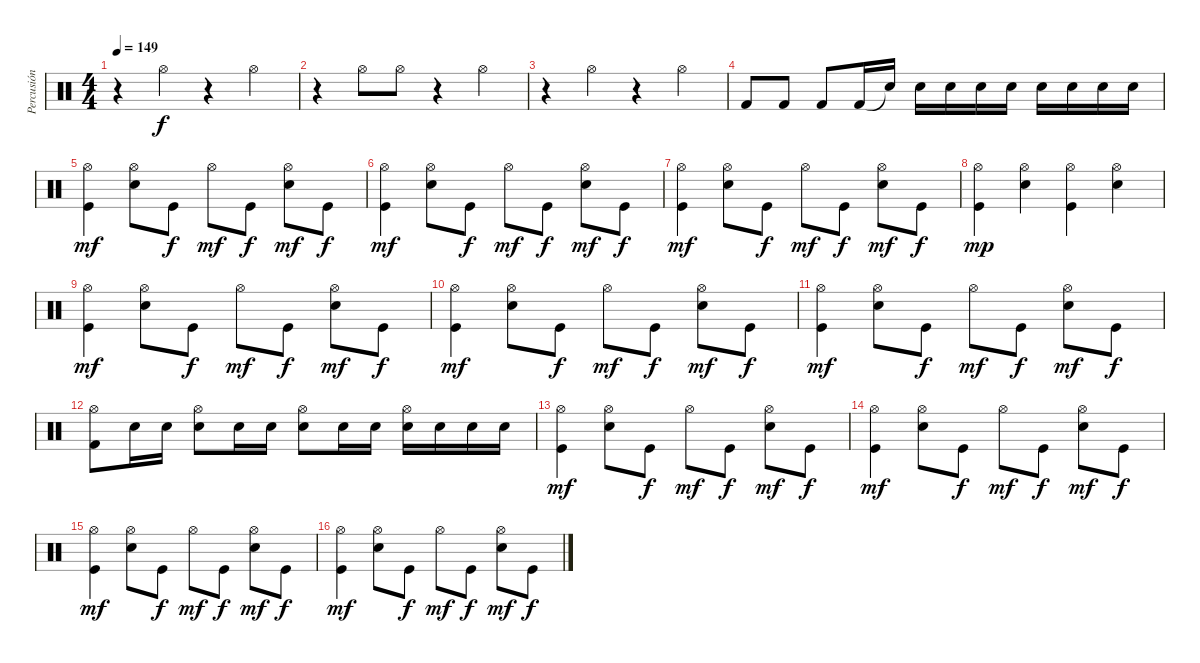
\track ("Percusión" "Percusión") {instrument percussion}
\staff {score}
\articulation defaults
\ts (4 4)
\tempo 149
\clef neutral
\ks c
r.4{dy f} "Hi-Hat (open)".4 r.4 "Hi-Hat (open)".4 |
r.4 "Hi-Hat (open)".8 "Hi-Hat (open)".8 r.4 "Hi-Hat (open)".4 |
r.4 "Hi-Hat (open)".4 r.4 "Hi-Hat (open)".4 |
"Kick (hit) 2".8 "Kick (hit) 2".8 "Kick (hit) 2".8 "Kick (hit) 2".16 "Electric Snare (hit)"{t}.16 "Electric Snare (hit)".16 "Electric Snare (hit)".16 "Electric Snare (hit)".16 "Electric Snare (hit)".16 "Electric Snare (hit)".16 "Electric Snare (hit)".16 "Electric Snare (hit)".16 "Electric Snare (hit)".16 |
("Hi-Hat (open)" "Kick (hit)").4{dy mf} ("Hi-Hat (open)" "Electric Snare (hit)").8 "Kick (hit)".8{dy f} "Hi-Hat (open)".8{dy mf} "Kick (hit)".8{dy f} ("Hi-Hat (open)" "Electric Snare (hit)").8{dy mf} "Kick (hit)".8{dy f} |
("Hi-Hat (open)" "Kick (hit)").4{dy mf} ("Hi-Hat (open)" "Electric Snare (hit)").8 "Kick (hit)".8{dy f} "Hi-Hat (open)".8{dy mf} "Kick (hit)".8{dy f} ("Hi-Hat (open)" "Electric Snare (hit)").8{dy mf} "Kick (hit)".8{dy f} |
("Hi-Hat (open)" "Kick (hit)").4{dy mf} ("Hi-Hat (open)" "Electric Snare (hit)").8 "Kick (hit)".8{dy f} "Hi-Hat (open)".8{dy mf} "Kick (hit)".8{dy f} ("Hi-Hat (open)" "Electric Snare (hit)").8{dy mf} "Kick (hit)".8{dy f} |
("Kick (hit)" "Hi-Hat (open)").4{dy mp} ("Electric Snare (hit)" "Hi-Hat (open)").4 ("Kick (hit)" "Hi-Hat (open)").4 ("Electric Snare (hit)" "Hi-Hat (open)").4 |
("Hi-Hat (open)" "Kick (hit)").4{dy mf} ("Hi-Hat (open)" "Electric Snare (hit)").8 "Kick (hit)".8{dy f} "Hi-Hat (open)".8{dy mf} "Kick (hit)".8{dy f} ("Hi-Hat (open)" "Electric Snare (hit)").8{dy mf} "Kick (hit)".8{dy f} |
("Hi-Hat (open)" "Kick (hit)").4{dy mf} ("Hi-Hat (open)" "Electric Snare (hit)").8 "Kick (hit)".8{dy f} "Hi-Hat (open)".8{dy mf} "Kick (hit)".8{dy f} ("Hi-Hat (open)" "Electric Snare (hit)").8{dy mf} "Kick (hit)".8{dy f} |
("Hi-Hat (open)" "Kick (hit)").4{dy mf} ("Hi-Hat (open)" "Electric Snare (hit)").8 "Kick (hit)".8{dy f} "Hi-Hat (open)".8{dy mf} "Kick (hit)".8{dy f} ("Hi-Hat (open)" "Electric Snare (hit)").8{dy mf} "Kick (hit)".8{dy f} |
("Kick (hit) 2" "Hi-Hat (open)").8 "Electric Snare (hit)".16 "Electric Snare (hit)".16 ("Electric Snare (hit)" "Hi-Hat (open)").8 "Electric Snare (hit)".16 "Electric Snare (hit)".16 ("Electric Snare (hit)" "Hi-Hat (open)").8 "Electric Snare (hit)".16 "Electric Snare (hit)".16 ("Electric Snare (hit)" "Hi-Hat (open)").16 "Electric Snare (hit)".16 "Electric Snare (hit)".16 "Electric Snare (hit)".16 |
("Hi-Hat (open)" "Kick (hit)").4{dy mf} ("Hi-Hat (open)" "Electric Snare (hit)").8 "Kick (hit)".8{dy f} "Hi-Hat (open)".8{dy mf} "Kick (hit)".8{dy f} ("Hi-Hat (open)" "Electric Snare (hit)").8{dy mf} "Kick (hit)".8{dy f} |
("Hi-Hat (open)" "Kick (hit)").4{dy mf} ("Hi-Hat (open)" "Electric Snare (hit)").8 "Kick (hit)".8{dy f} "Hi-Hat (open)".8{dy mf} "Kick (hit)".8{dy f} ("Hi-Hat (open)" "Electric Snare (hit)").8{dy mf} "Kick (hit)".8{dy f} |
("Hi-Hat (open)" "Kick (hit)").4{dy mf} ("Hi-Hat (open)" "Electric Snare (hit)").8 "Kick (hit)".8{dy f} "Hi-Hat (open)".8{dy mf} "Kick (hit)".8{dy f} ("Hi-Hat (open)" "Electric Snare (hit)").8{dy mf} "Kick (hit)".8{dy f} |
("Hi-Hat (open)" "Kick (hit)").4{dy mf} ("Hi-Hat (open)" "Electric Snare (hit)").8 "Kick (hit)".8{dy f} "Hi-Hat (open)".8{dy mf} "Kick (hit)".8{dy f} ("Hi-Hat (open)" "Electric Snare (hit)").8{dy mf} "Kick (hit)".8{dy f}
